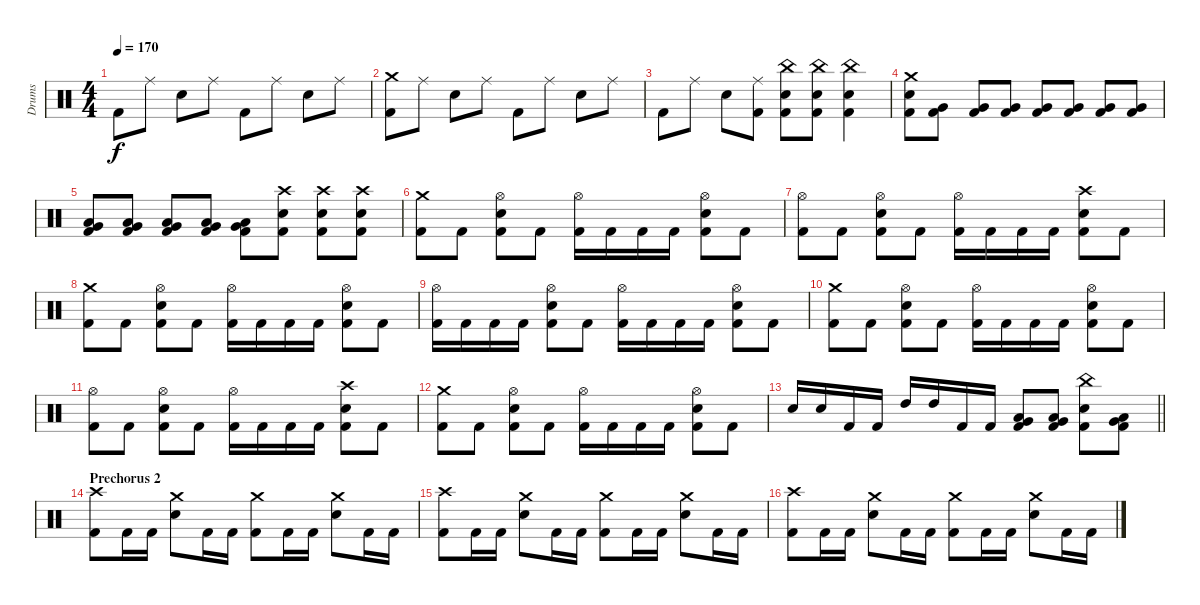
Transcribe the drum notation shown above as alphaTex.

\track ("Drums" "Drums") {instrument percussion}
\staff {score}
\articulation defaults
\ts (4 4)
\tempo 170
\clef neutral
\ks c "Kick (hit) 2".8{dy f} "Ride (middle)".8 "Snare (hit) 2".8 "Ride (middle)".8 "Kick (hit) 2".8 "Ride (middle)".8 "Snare (hit) 2".8 "Ride (middle)".8
|
("Crash medium (hit)" "Kick (hit) 2").8 "Ride (middle)".8 "Snare (hit) 2".8 "Ride (middle)".8 "Kick (hit) 2".8 "Ride (middle)".8 "Snare (hit) 2".8 "Ride (middle)".8 |
"Kick (hit) 2".8 "Ride (middle)".8 "Snare (hit) 2".8 ("Ride (middle)" "Kick (hit) 2").8 ("China (hit)" "Snare (hit) 2" "Kick (hit) 2").8 ("China (hit)" "Snare (hit) 2" "Kick (hit) 2").8 ("China (hit)" "Snare (hit) 2" "Kick (hit) 2").4 |
("Crash medium (hit)" "Snare (hit) 2" "Kick (hit) 2").8 ("Very Low Tom (hit)" "Kick (hit) 2").8 ("Very Low Tom (hit)" "Kick (hit) 2").8 ("Very Low Tom (hit)" "Kick (hit) 2").8 ("Very Low Tom (hit)" "Kick (hit) 2").8 ("Very Low Tom (hit)" "Kick (hit) 2").8 ("Very Low Tom (hit)" "Kick (hit) 2").8 ("Very Low Tom (hit)" "Kick (hit) 2").8 |
("Low Tom (hit)" "Very Low Tom (hit)" "Kick (hit) 2").8 ("Low Tom (hit)" "Very Low Tom (hit)" "Kick (hit) 2").8 ("Low Tom (hit)" "Very Low Tom (hit)" "Kick (hit) 2").8 ("Low Tom (hit)" "Very Low Tom (hit)" "Kick (hit) 2").8 ("Low Tom (hit)" "Very Low Tom (hit)" "Kick (hit) 2").8 ("Crash high (hit)" "Snare (hit) 2" "Kick (hit) 2").8 ("Crash high (hit)" "Snare (hit) 2" "Kick (hit) 2").8 ("Crash high (hit)" "Snare (hit) 2" "Kick (hit) 2").8 |
("Crash medium (hit)" "Kick (hit) 2").8 "Kick (hit) 2".8 ("Hi-Hat (open)" "Snare (hit) 2" "Kick (hit) 2").8 "Kick (hit) 2".8 ("Hi-Hat (open)" "Kick (hit) 2").16 "Kick (hit) 2".16 "Kick (hit) 2".16 "Kick (hit) 2".16 ("Hi-Hat (open)" "Snare (hit) 2" "Kick (hit) 2").8 "Kick (hit) 2".8 |
("Hi-Hat (open)" "Kick (hit) 2").8 "Kick (hit) 2".8 ("Hi-Hat (open)" "Snare (hit) 2" "Kick (hit) 2").8 "Kick (hit) 2".8 ("Hi-Hat (open)" "Kick (hit) 2").16 "Kick (hit) 2".16 "Kick (hit) 2".16 "Kick (hit) 2".16 ("Crash high (hit)" "Snare (hit) 2" "Kick (hit) 2").8 "Kick (hit) 2".8 |
("Crash medium (hit)" "Kick (hit) 2").8 "Kick (hit) 2".8 ("Hi-Hat (open)" "Snare (hit) 2" "Kick (hit) 2").8 "Kick (hit) 2".8 ("Hi-Hat (open)" "Kick (hit) 2").16 "Kick (hit) 2".16 "Kick (hit) 2".16 "Kick (hit) 2".16 ("Hi-Hat (open)" "Snare (hit) 2" "Kick (hit) 2").8 "Kick (hit) 2".8 |
("Hi-Hat (open)" "Kick (hit) 2").16 "Kick (hit) 2".16 "Kick (hit) 2".16 "Kick (hit) 2".16 ("Hi-Hat (open)" "Snare (hit) 2" "Kick (hit) 2").8 "Kick (hit) 2".8 ("Hi-Hat (open)" "Kick (hit) 2").16 "Kick (hit) 2".16 "Kick (hit) 2".16 "Kick (hit) 2".16 ("Hi-Hat (open)" "Snare (hit) 2" "Kick (hit) 2").8 "Kick (hit) 2".8 |
("Crash medium (hit)" "Kick (hit) 2").8 "Kick (hit) 2".8 ("Hi-Hat (open)" "Snare (hit) 2" "Kick (hit) 2").8 "Kick (hit) 2".8 ("Hi-Hat (open)" "Kick (hit) 2").16 "Kick (hit) 2".16 "Kick (hit) 2".16 "Kick (hit) 2".16 ("Hi-Hat (open)" "Snare (hit) 2" "Kick (hit) 2").8 "Kick (hit) 2".8 |
("Hi-Hat (open)" "Kick (hit) 2").8 "Kick (hit) 2".8 ("Hi-Hat (open)" "Snare (hit) 2" "Kick (hit) 2").8 "Kick (hit) 2".8 ("Hi-Hat (open)" "Kick (hit) 2").16 "Kick (hit) 2".16 "Kick (hit) 2".16 "Kick (hit) 2".16 ("Crash high (hit)" "Snare (hit) 2" "Kick (hit) 2").8 "Kick (hit) 2".8 |
("Crash medium (hit)" "Kick (hit) 2").8 "Kick (hit) 2".8 ("Hi-Hat (open)" "Snare (hit) 2" "Kick (hit) 2").8 "Kick (hit) 2".8 ("Hi-Hat (open)" "Kick (hit) 2").16 "Kick (hit) 2".16 "Kick (hit) 2".16 "Kick (hit) 2".16 ("Hi-Hat (open)" "Snare (hit) 2" "Kick (hit) 2").8 "Kick (hit) 2".8 |
\barLineRight lightlight "Snare (hit) 2".16 "Snare (hit) 2".16 "Kick (hit) 2".16 "Kick (hit) 2".16 "High Tom (hit)".16 "High Tom (hit)".16 "Kick (hit) 2".16 "Kick (hit) 2".16
("Low Tom (hit)" "Very Low Tom (hit)" "Kick (hit) 2").8 ("Low Tom (hit)" "Very Low Tom (hit)" "Kick (hit) 2").8 ("China (hit)" "Snare (hit) 2" "Kick (hit) 2").8 ("Low Tom (hit)" "Very Low Tom (hit)" "Kick (hit) 2").8 |
\section ("" "Prechorus 2")
("Crash high (hit)" "Kick (hit) 2").8 "Kick (hit) 2".16 "Kick (hit) 2".16 ("Crash medium (hit)" "Snare (hit) 2").8 "Kick (hit) 2".16 "Kick (hit) 2".16 ("Crash medium (hit)" "Kick (hit) 2").8 "Kick (hit) 2".16 "Kick (hit) 2".16 ("Crash medium (hit)" "Snare (hit) 2").8 "Kick (hit) 2".16 "Kick (hit) 2".16 |
("Crash high (hit)" "Kick (hit) 2").8 "Kick (hit) 2".16 "Kick (hit) 2".16 ("Crash medium (hit)" "Snare (hit) 2").8 "Kick (hit) 2".16 "Kick (hit) 2".16 ("Crash medium (hit)" "Kick (hit) 2").8 "Kick (hit) 2".16 "Kick (hit) 2".16 ("Crash medium (hit)" "Snare (hit) 2").8 "Kick (hit) 2".16 "Kick (hit) 2".16 |
("Crash high (hit)" "Kick (hit) 2").8 "Kick (hit) 2".16 "Kick (hit) 2".16 ("Crash medium (hit)" "Snare (hit) 2").8 "Kick (hit) 2".16 "Kick (hit) 2".16 ("Crash medium (hit)" "Kick (hit) 2").8 "Kick (hit) 2".16 "Kick (hit) 2".16 ("Crash medium (hit)" "Snare (hit) 2").8 "Kick (hit) 2".16 "Kick (hit) 2".16
